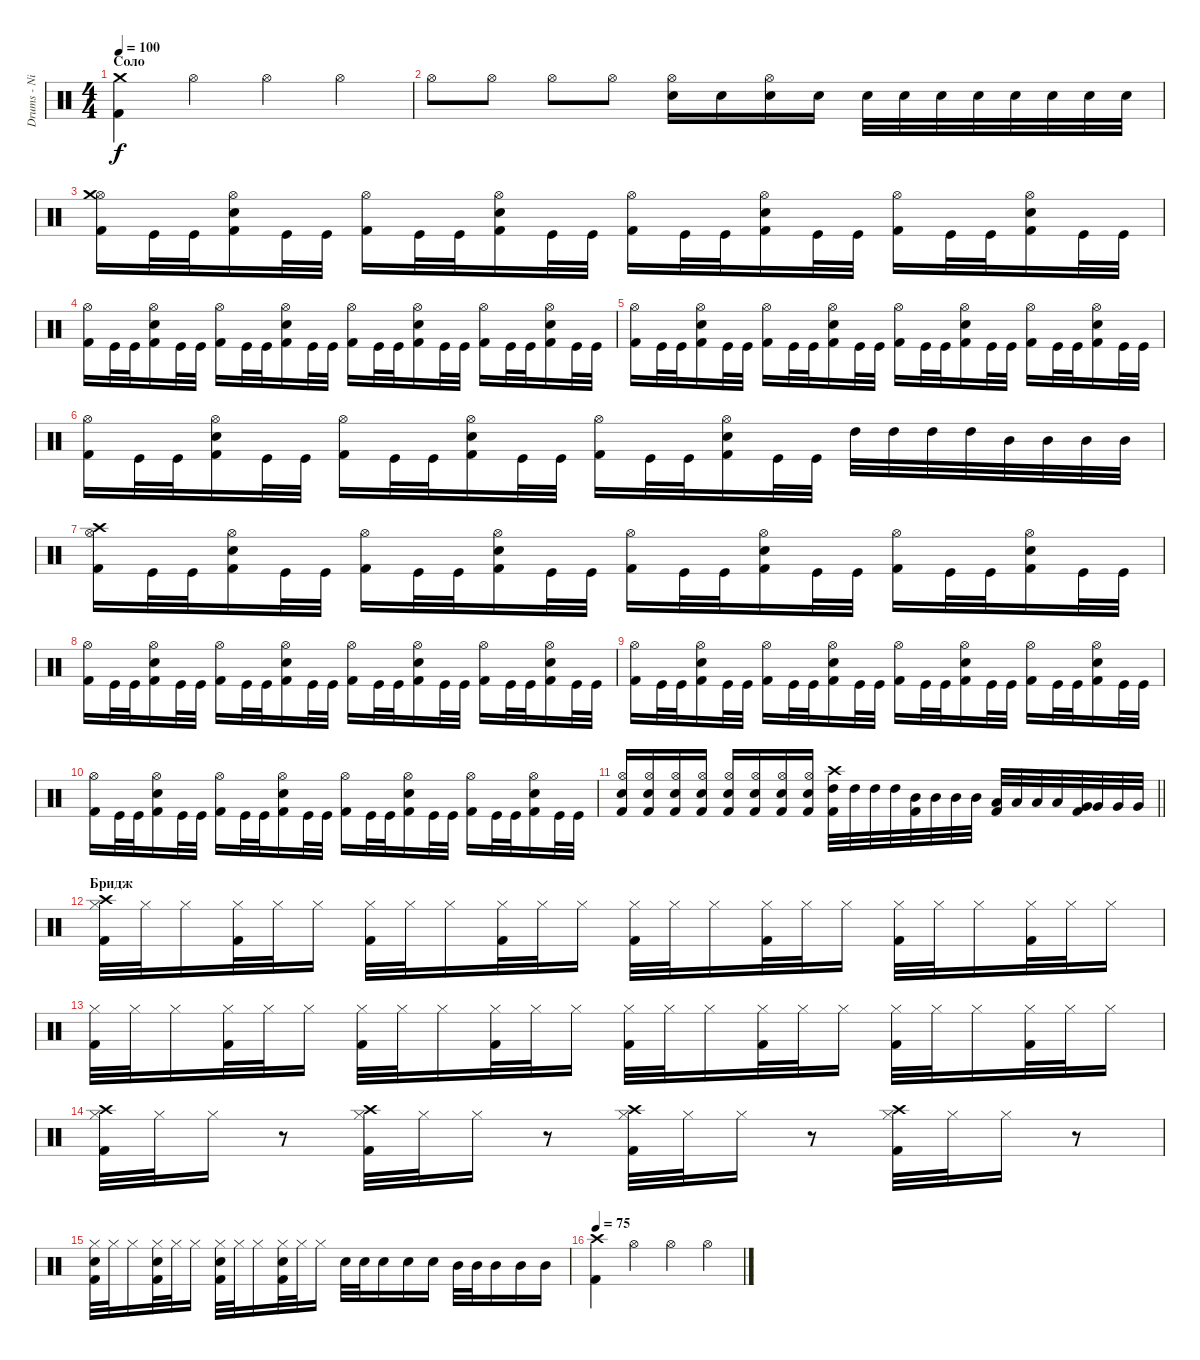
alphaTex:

\track ("Drums - NikiTon" "Drums - Ni") {instrument percussion}
\staff {score}
\articulation defaults
\ts (4 4)
\section ("" "Соло")
\tempo 100
\clef neutral
\ks c
("Crash medium (hit)" "Kick (hit) 2").4{dy f} "Hi-Hat (open)".4 "Hi-Hat (open)".4 "Hi-Hat (open)".4 |
"Hi-Hat (open)".8 "Hi-Hat (open)".8 "Hi-Hat (open)".8 "Hi-Hat (open)".8 ("Hi-Hat (open)" "Electric Snare (hit)").16 "Snare (hit) 2".16 ("Hi-Hat (open)" "Electric Snare (hit)").16 "Snare (hit) 2".16 "Electric Snare (hit)".32 "Electric Snare (hit)".32 "Electric Snare (hit)".32 "Electric Snare (hit)".32 "Electric Snare (hit)".32 "Electric Snare (hit)".32 "Electric Snare (hit)".32 "Electric Snare (hit)".32 |
("Hi-Hat (open)" "Kick (hit) 2" "Crash medium (hit)").16 "Kick (hit)".32 "Kick (hit)".32 ("Hi-Hat (open)" "Electric Snare (hit)" "Kick (hit) 2").16 "Kick (hit)".32 "Kick (hit)".32 ("Hi-Hat (open)" "Kick (hit) 2").16 "Kick (hit)".32 "Kick (hit)".32 ("Hi-Hat (open)" "Electric Snare (hit)" "Kick (hit) 2").16 "Kick (hit)".32 "Kick (hit)".32 ("Hi-Hat (open)" "Kick (hit) 2").16 "Kick (hit)".32 "Kick (hit)".32 ("Hi-Hat (open)" "Electric Snare (hit)" "Kick (hit) 2").16 "Kick (hit)".32 "Kick (hit)".32 ("Hi-Hat (open)" "Kick (hit) 2").16 "Kick (hit)".32 "Kick (hit)".32 ("Hi-Hat (open)" "Electric Snare (hit)" "Kick (hit) 2").16 "Kick (hit)".32 "Kick (hit)".32 |
("Hi-Hat (open)" "Kick (hit) 2").16 "Kick (hit)".32 "Kick (hit)".32 ("Hi-Hat (open)" "Electric Snare (hit)" "Kick (hit) 2").16 "Kick (hit)".32 "Kick (hit)".32 ("Hi-Hat (open)" "Kick (hit) 2").16 "Kick (hit)".32 "Kick (hit)".32 ("Hi-Hat (open)" "Electric Snare (hit)" "Kick (hit) 2").16 "Kick (hit)".32 "Kick (hit)".32 ("Hi-Hat (open)" "Kick (hit) 2").16 "Kick (hit)".32 "Kick (hit)".32 ("Hi-Hat (open)" "Electric Snare (hit)" "Kick (hit) 2").16 "Kick (hit)".32 "Kick (hit)".32 ("Hi-Hat (open)" "Kick (hit) 2").16 "Kick (hit)".32 "Kick (hit)".32 ("Hi-Hat (open)" "Electric Snare (hit)" "Kick (hit) 2").16 "Kick (hit)".32 "Kick (hit)".32 |
("Hi-Hat (open)" "Kick (hit) 2").16 "Kick (hit)".32 "Kick (hit)".32 ("Hi-Hat (open)" "Electric Snare (hit)" "Kick (hit) 2").16 "Kick (hit)".32 "Kick (hit)".32 ("Hi-Hat (open)" "Kick (hit) 2").16 "Kick (hit)".32 "Kick (hit)".32 ("Hi-Hat (open)" "Electric Snare (hit)" "Kick (hit) 2").16 "Kick (hit)".32 "Kick (hit)".32 ("Hi-Hat (open)" "Kick (hit) 2").16 "Kick (hit)".32 "Kick (hit)".32 ("Hi-Hat (open)" "Electric Snare (hit)" "Kick (hit) 2").16 "Kick (hit)".32 "Kick (hit)".32 ("Hi-Hat (open)" "Kick (hit) 2").16 "Kick (hit)".32 "Kick (hit)".32 ("Hi-Hat (open)" "Electric Snare (hit)" "Kick (hit) 2").16 "Kick (hit)".32 "Kick (hit)".32 |
("Hi-Hat (open)" "Kick (hit) 2").16 "Kick (hit)".32 "Kick (hit)".32 ("Hi-Hat (open)" "Electric Snare (hit)" "Kick (hit) 2").16 "Kick (hit)".32 "Kick (hit)".32 ("Hi-Hat (open)" "Kick (hit) 2").16 "Kick (hit)".32 "Kick (hit)".32 ("Hi-Hat (open)" "Electric Snare (hit)" "Kick (hit) 2").16 "Kick (hit)".32 "Kick (hit)".32 ("Hi-Hat (open)" "Kick (hit) 2").16 "Kick (hit)".32 "Kick (hit)".32 ("Hi-Hat (open)" "Electric Snare (hit)" "Kick (hit) 2").16 "Kick (hit)".32 "Kick (hit)".32 "High Tom (hit)".32 "High Tom (hit)".32 "High Tom (hit)".32 "High Tom (hit)".32 "Mid Tom (hit)".32 "Mid Tom (hit)".32 "Mid Tom (hit)".32 "Mid Tom (hit)".32 |
("Hi-Hat (open)" "Kick (hit) 2" "Crash high (hit)").16 "Kick (hit)".32 "Kick (hit)".32 ("Hi-Hat (open)" "Electric Snare (hit)" "Kick (hit) 2").16 "Kick (hit)".32 "Kick (hit)".32 ("Hi-Hat (open)" "Kick (hit) 2").16 "Kick (hit)".32 "Kick (hit)".32 ("Hi-Hat (open)" "Electric Snare (hit)" "Kick (hit) 2").16 "Kick (hit)".32 "Kick (hit)".32 ("Hi-Hat (open)" "Kick (hit) 2").16 "Kick (hit)".32 "Kick (hit)".32 ("Hi-Hat (open)" "Electric Snare (hit)" "Kick (hit) 2").16 "Kick (hit)".32 "Kick (hit)".32 ("Hi-Hat (open)" "Kick (hit) 2").16 "Kick (hit)".32 "Kick (hit)".32 ("Hi-Hat (open)" "Electric Snare (hit)" "Kick (hit) 2").16 "Kick (hit)".32 "Kick (hit)".32 |
("Hi-Hat (open)" "Kick (hit) 2").16 "Kick (hit)".32 "Kick (hit)".32 ("Hi-Hat (open)" "Electric Snare (hit)" "Kick (hit) 2").16 "Kick (hit)".32 "Kick (hit)".32 ("Hi-Hat (open)" "Kick (hit) 2").16 "Kick (hit)".32 "Kick (hit)".32 ("Hi-Hat (open)" "Electric Snare (hit)" "Kick (hit) 2").16 "Kick (hit)".32 "Kick (hit)".32 ("Hi-Hat (open)" "Kick (hit) 2").16 "Kick (hit)".32 "Kick (hit)".32 ("Hi-Hat (open)" "Electric Snare (hit)" "Kick (hit) 2").16 "Kick (hit)".32 "Kick (hit)".32 ("Hi-Hat (open)" "Kick (hit) 2").16 "Kick (hit)".32 "Kick (hit)".32 ("Hi-Hat (open)" "Electric Snare (hit)" "Kick (hit) 2").16 "Kick (hit)".32 "Kick (hit)".32 |
("Hi-Hat (open)" "Kick (hit) 2").16 "Kick (hit)".32 "Kick (hit)".32 ("Hi-Hat (open)" "Electric Snare (hit)" "Kick (hit) 2").16 "Kick (hit)".32 "Kick (hit)".32 ("Hi-Hat (open)" "Kick (hit) 2").16 "Kick (hit)".32 "Kick (hit)".32 ("Hi-Hat (open)" "Electric Snare (hit)" "Kick (hit) 2").16 "Kick (hit)".32 "Kick (hit)".32 ("Hi-Hat (open)" "Kick (hit) 2").16 "Kick (hit)".32 "Kick (hit)".32 ("Hi-Hat (open)" "Electric Snare (hit)" "Kick (hit) 2").16 "Kick (hit)".32 "Kick (hit)".32 ("Hi-Hat (open)" "Kick (hit) 2").16 "Kick (hit)".32 "Kick (hit)".32 ("Hi-Hat (open)" "Electric Snare (hit)" "Kick (hit) 2").16 "Kick (hit)".32 "Kick (hit)".32 |
("Hi-Hat (open)" "Kick (hit) 2").16 "Kick (hit)".32 "Kick (hit)".32 ("Hi-Hat (open)" "Electric Snare (hit)" "Kick (hit) 2").16 "Kick (hit)".32 "Kick (hit)".32 ("Hi-Hat (open)" "Kick (hit) 2").16 "Kick (hit)".32 "Kick (hit)".32 ("Hi-Hat (open)" "Electric Snare (hit)" "Kick (hit) 2").16 "Kick (hit)".32 "Kick (hit)".32 ("Hi-Hat (open)" "Kick (hit) 2").16 "Kick (hit)".32 "Kick (hit)".32 ("Hi-Hat (open)" "Electric Snare (hit)" "Kick (hit) 2").16 "Kick (hit)".32 "Kick (hit)".32 ("Hi-Hat (open)" "Kick (hit) 2").16 "Kick (hit)".32 "Kick (hit)".32 ("Hi-Hat (open)" "Electric Snare (hit)" "Kick (hit) 2").16 "Kick (hit)".32 "Kick (hit)".32 |
\barLineRight lightlight
("Hi-Hat (open)" "Electric Snare (hit)" "Kick (hit) 2").16 ("Hi-Hat (open)" "Electric Snare (hit)" "Kick (hit) 2").16 ("Hi-Hat (open)" "Electric Snare (hit)" "Kick (hit) 2").16 ("Hi-Hat (open)" "Electric Snare (hit)" "Kick (hit) 2").16 ("Hi-Hat (open)" "Electric Snare (hit)" "Kick (hit) 2").16 ("Hi-Hat (open)" "Electric Snare (hit)" "Kick (hit) 2").16 ("Hi-Hat (open)" "Electric Snare (hit)" "Kick (hit) 2").16 ("Hi-Hat (open)" "Electric Snare (hit)" "Kick (hit) 2").16 ("Crash high (hit)" "High Tom (hit)" "Kick (hit) 2").32 "High Tom (hit)".32 "High Tom (hit)".32 "High Tom (hit)".32 ("Mid Tom (hit)" "Kick (hit) 2").32 "Mid Tom (hit)".32 "Mid Tom (hit)".32 "Mid Tom (hit)".32 ("Low Tom (hit)" "Kick (hit) 2").32 "Low Tom (hit)".32 "Low Tom (hit)".32 "Low Tom (hit)".32 ("Very Low Tom (hit)" "Kick (hit) 2").32 "Very Low Tom (hit)".32 "Very Low Tom (hit)".32 "Very Low Tom (hit)".32 |
\section ("" "Бридж")
("Crash high (hit)" "Kick (hit) 2" "Hi-Hat (closed)").32 "Hi-Hat (closed)".32 "Hi-Hat (closed)".16 ("Hi-Hat (closed)" "Kick (hit) 2").32 "Hi-Hat (closed)".32 "Hi-Hat (closed)".16 ("Hi-Hat (closed)" "Kick (hit) 2").32 "Hi-Hat (closed)".32 "Hi-Hat (closed)".16 ("Hi-Hat (closed)" "Kick (hit) 2").32 "Hi-Hat (closed)".32 "Hi-Hat (closed)".16 ("Hi-Hat (closed)" "Kick (hit) 2").32 "Hi-Hat (closed)".32 "Hi-Hat (closed)".16 ("Hi-Hat (closed)" "Kick (hit) 2").32 "Hi-Hat (closed)".32 "Hi-Hat (closed)".16 ("Hi-Hat (closed)" "Kick (hit) 2").32 "Hi-Hat (closed)".32 "Hi-Hat (closed)".16 ("Hi-Hat (closed)" "Kick (hit) 2").32 "Hi-Hat (closed)".32 "Hi-Hat (closed)".16 |
("Hi-Hat (closed)" "Kick (hit) 2").32 "Hi-Hat (closed)".32 "Hi-Hat (closed)".16 ("Hi-Hat (closed)" "Kick (hit) 2").32 "Hi-Hat (closed)".32 "Hi-Hat (closed)".16 ("Hi-Hat (closed)" "Kick (hit) 2").32 "Hi-Hat (closed)".32 "Hi-Hat (closed)".16 ("Hi-Hat (closed)" "Kick (hit) 2").32 "Hi-Hat (closed)".32 "Hi-Hat (closed)".16 ("Hi-Hat (closed)" "Kick (hit) 2").32 "Hi-Hat (closed)".32 "Hi-Hat (closed)".16 ("Hi-Hat (closed)" "Kick (hit) 2").32 "Hi-Hat (closed)".32 "Hi-Hat (closed)".16 ("Hi-Hat (closed)" "Kick (hit) 2").32 "Hi-Hat (closed)".32 "Hi-Hat (closed)".16 ("Hi-Hat (closed)" "Kick (hit) 2").32 "Hi-Hat (closed)".32 "Hi-Hat (closed)".16 |
("Crash high (hit)" "Kick (hit) 2" "Hi-Hat (closed)").32 "Hi-Hat (closed)".32 "Hi-Hat (closed)".16 r.8 ("Crash high (hit)" "Kick (hit) 2" "Hi-Hat (closed)").32 "Hi-Hat (closed)".32 "Hi-Hat (closed)".16 r.8 ("Crash high (hit)" "Kick (hit) 2" "Hi-Hat (closed)").32 "Hi-Hat (closed)".32 "Hi-Hat (closed)".16 r.8 ("Crash high (hit)" "Kick (hit) 2" "Hi-Hat (closed)").32 "Hi-Hat (closed)".32 "Hi-Hat (closed)".16 r.8 |
("Electric Snare (hit)" "Hi-Hat (closed)" "Kick (hit) 2").32 "Hi-Hat (closed)".32 "Hi-Hat (closed)".16 ("Electric Snare (hit)" "Hi-Hat (closed)" "Kick (hit) 2").32 "Hi-Hat (closed)".32 "Hi-Hat (closed)".16 ("Electric Snare (hit)" "Hi-Hat (closed)" "Kick (hit) 2").32 "Hi-Hat (closed)".32 "Hi-Hat (closed)".16 ("Electric Snare (hit)" "Hi-Hat (closed)" "Kick (hit) 2").32 "Hi-Hat (closed)".32 "Hi-Hat (closed)".16 "Electric Snare (hit)".32 "Electric Snare (hit)".32 "Electric Snare (hit)".16 "Electric Snare (hit)".16 "Electric Snare (hit)".16 "Mid Tom (hit)".32 "Mid Tom (hit)".32 "Mid Tom (hit)".16 "Mid Tom (hit)".16 "Mid Tom (hit)".16 |
\tempo 75
("Crash high (hit)" "Kick (hit) 2").4 "Hi-Hat (open)".4 "Hi-Hat (open)".4 "Hi-Hat (open)".4
